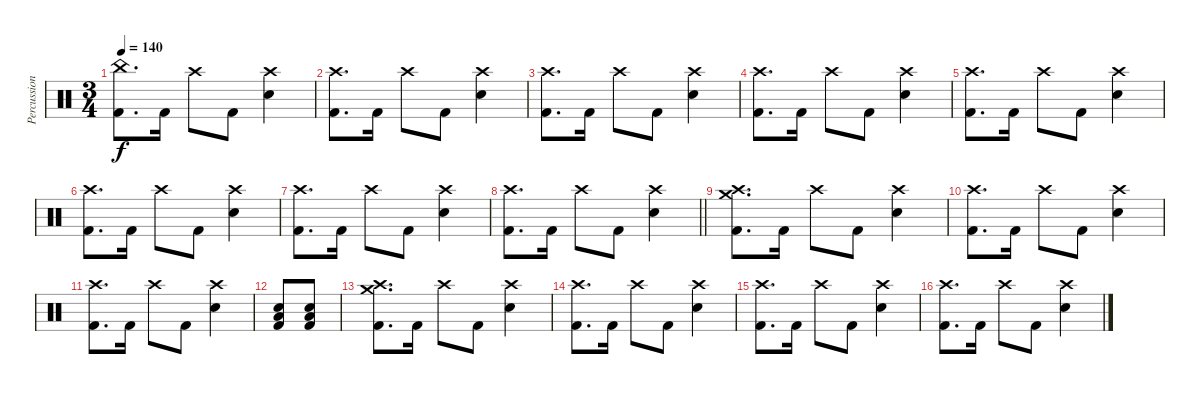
\track ("Percussion" "Percussion") {instrument percussion}
\staff {score}
\articulation defaults
\ts (3 4)
\tempo 140
\clef neutral
\ks c
("China (hit)" "Kick (hit) 2").8{d dy f} "Kick (hit) 2".16 "Crash high (hit)".8 "Kick (hit) 2".8 ("Crash high (hit)" "Electric Snare (hit)").4 |
("Crash high (hit)" "Kick (hit) 2").8{d} "Kick (hit) 2".16 "Crash high (hit)".8 "Kick (hit) 2".8 ("Crash high (hit)" "Electric Snare (hit)").4 |
("Crash high (hit)" "Kick (hit) 2").8{d} "Kick (hit) 2".16 "Crash high (hit)".8 "Kick (hit) 2".8 ("Crash high (hit)" "Electric Snare (hit)").4 |
("Crash high (hit)" "Kick (hit) 2").8{d} "Kick (hit) 2".16 "Crash high (hit)".8 "Kick (hit) 2".8 ("Crash high (hit)" "Electric Snare (hit)").4 |
("Crash high (hit)" "Kick (hit) 2").8{d} "Kick (hit) 2".16 "Crash high (hit)".8 "Kick (hit) 2".8 ("Crash high (hit)" "Electric Snare (hit)").4 |
("Crash high (hit)" "Kick (hit) 2").8{d} "Kick (hit) 2".16 "Crash high (hit)".8 "Kick (hit) 2".8 ("Crash high (hit)" "Electric Snare (hit)").4 |
("Crash high (hit)" "Kick (hit) 2").8{d} "Kick (hit) 2".16 "Crash high (hit)".8 "Kick (hit) 2".8 ("Crash high (hit)" "Electric Snare (hit)").4 |
\barLineRight lightlight
("Crash high (hit)" "Kick (hit) 2").8{d} "Kick (hit) 2".16 "Crash high (hit)".8 "Kick (hit) 2".8 ("Crash high (hit)" "Electric Snare (hit)").4 |
("Crash medium (hit)" "Crash high (hit)" "Kick (hit) 2").8{d} "Kick (hit) 2".16 "Crash high (hit)".8 "Kick (hit) 2".8 ("Crash high (hit)" "Electric Snare (hit)").4 |
("Crash high (hit)" "Kick (hit) 2").8{d} "Kick (hit) 2".16 "Crash high (hit)".8 "Kick (hit) 2".8 ("Crash high (hit)" "Electric Snare (hit)").4 |
("Crash high (hit)" "Kick (hit) 2").8{d} "Kick (hit) 2".16 "Crash high (hit)".8 "Kick (hit) 2".8 ("Crash high (hit)" "Electric Snare (hit)").4 |
("Low Floor Tom (hit)" "Electric Snare (hit)" "Kick (hit) 2").8 ("Low Floor Tom (hit)" "Electric Snare (hit)" "Kick (hit) 2").8 |
("Crash medium (hit)" "Crash high (hit)" "Kick (hit) 2").8{d} "Kick (hit) 2".16 "Crash high (hit)".8 "Kick (hit) 2".8 ("Crash high (hit)" "Electric Snare (hit)").4 |
("Crash high (hit)" "Kick (hit) 2").8{d} "Kick (hit) 2".16 "Crash high (hit)".8 "Kick (hit) 2".8 ("Crash high (hit)" "Electric Snare (hit)").4 |
("Crash high (hit)" "Kick (hit) 2").8{d} "Kick (hit) 2".16 "Crash high (hit)".8 "Kick (hit) 2".8 ("Crash high (hit)" "Electric Snare (hit)").4 |
("Crash high (hit)" "Kick (hit) 2").8{d} "Kick (hit) 2".16 "Crash high (hit)".8 "Kick (hit) 2".8 ("Crash high (hit)" "Electric Snare (hit)").4
